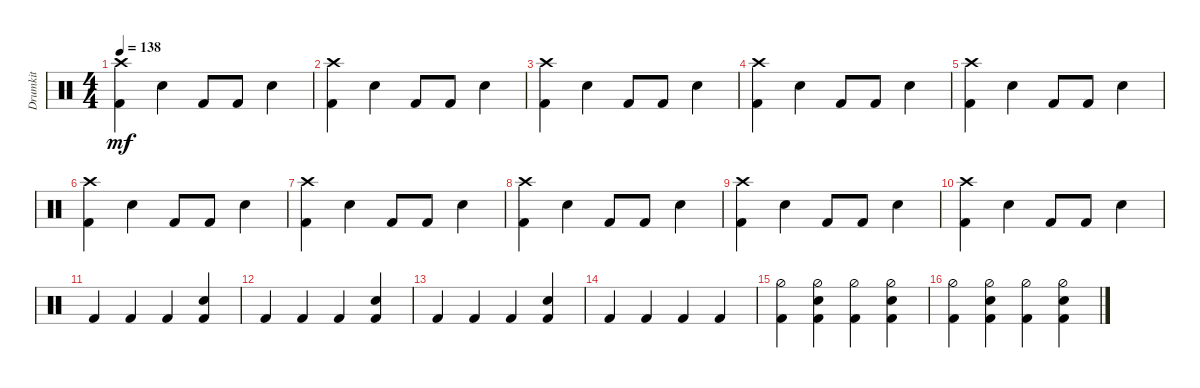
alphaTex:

\track ("Drumkit" "Drumkit") {instrument percussion}
\staff {score}
\articulation defaults
\ts (4 4)
\tempo 138
\clef neutral
\ks c
("Crash high (hit)" "Kick (hit) 2").4{dy mf} "Snare (hit) 2".4 "Kick (hit) 2".8 "Kick (hit) 2".8 "Snare (hit) 2".4 |
("Crash high (hit)" "Kick (hit) 2").4 "Snare (hit) 2".4 "Kick (hit) 2".8 "Kick (hit) 2".8 "Snare (hit) 2".4 |
("Crash high (hit)" "Kick (hit) 2").4 "Snare (hit) 2".4 "Kick (hit) 2".8 "Kick (hit) 2".8 "Snare (hit) 2".4 |
("Crash high (hit)" "Kick (hit) 2").4 "Snare (hit) 2".4 "Kick (hit) 2".8 "Kick (hit) 2".8 "Snare (hit) 2".4 |
("Crash high (hit)" "Kick (hit) 2").4 "Snare (hit) 2".4 "Kick (hit) 2".8 "Kick (hit) 2".8 "Snare (hit) 2".4 |
("Crash high (hit)" "Kick (hit) 2").4 "Snare (hit) 2".4 "Kick (hit) 2".8 "Kick (hit) 2".8 "Snare (hit) 2".4 |
("Crash high (hit)" "Kick (hit) 2").4 "Snare (hit) 2".4 "Kick (hit) 2".8 "Kick (hit) 2".8 "Snare (hit) 2".4 |
("Crash high (hit)" "Kick (hit) 2").4 "Snare (hit) 2".4 "Kick (hit) 2".8 "Kick (hit) 2".8 "Snare (hit) 2".4 |
("Crash high (hit)" "Kick (hit) 2").4 "Snare (hit) 2".4 "Kick (hit) 2".8 "Kick (hit) 2".8 "Snare (hit) 2".4 |
("Crash high (hit)" "Kick (hit) 2").4 "Snare (hit) 2".4 "Kick (hit) 2".8 "Kick (hit) 2".8 "Snare (hit) 2".4 |
"Kick (hit) 2".4 "Kick (hit) 2".4 "Kick (hit) 2".4 ("Kick (hit) 2" "Snare (hit) 2").4 |
"Kick (hit) 2".4 "Kick (hit) 2".4 "Kick (hit) 2".4 ("Kick (hit) 2" "Snare (hit) 2").4 |
"Kick (hit) 2".4 "Kick (hit) 2".4 "Kick (hit) 2".4 ("Kick (hit) 2" "Snare (hit) 2").4 |
"Kick (hit) 2".4 "Kick (hit) 2".4 "Kick (hit) 2".4 "Kick (hit) 2".4 |
("Kick (hit) 2" "Hi-Hat (half)").4 ("Kick (hit) 2" "Snare (hit) 2" "Hi-Hat (half)").4 ("Kick (hit) 2" "Hi-Hat (half)").4 ("Kick (hit) 2" "Snare (hit) 2" "Hi-Hat (half)").4 |
("Kick (hit) 2" "Hi-Hat (half)").4 ("Kick (hit) 2" "Snare (hit) 2" "Hi-Hat (half)").4 ("Kick (hit) 2" "Hi-Hat (half)").4 ("Kick (hit) 2" "Snare (hit) 2" "Hi-Hat (half)").4
